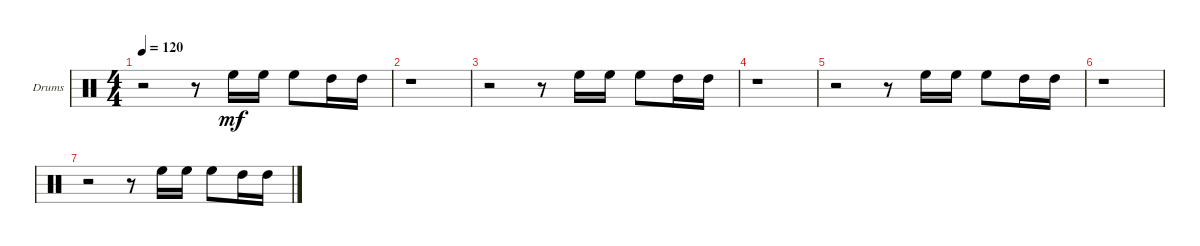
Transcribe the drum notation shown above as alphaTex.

\bracketExtendMode groupsimilarinstruments
\firstSystemTrackNameOrientation horizontal
\otherSystemsTrackNameOrientation horizontal
\track ("Drumkit" "Drums") {instrument percussion}
\staff {score}
\articulation defaults
\ts (4 4)
\tempo 120
\clef neutral
\ks c
r.2{dy mf} r.8 "High Floor Tom (hit)".16 "High Floor Tom (hit)".16 "High Floor Tom (hit)".8 "High Tom (hit)".16 "High Tom (hit)".16 |
r.1 |
r.2 r.8 "High Floor Tom (hit)".16 "High Floor Tom (hit)".16 "High Floor Tom (hit)".8 "High Tom (hit)".16 "High Tom (hit)".16 |
r.1 |
r.2 r.8 "High Floor Tom (hit)".16 "High Floor Tom (hit)".16 "High Floor Tom (hit)".8 "High Tom (hit)".16 "High Tom (hit)".16 |
r.1 |
r.2 r.8 "High Floor Tom (hit)".16 "High Floor Tom (hit)".16 "High Floor Tom (hit)".8 "High Tom (hit)".16 "High Tom (hit)".16
